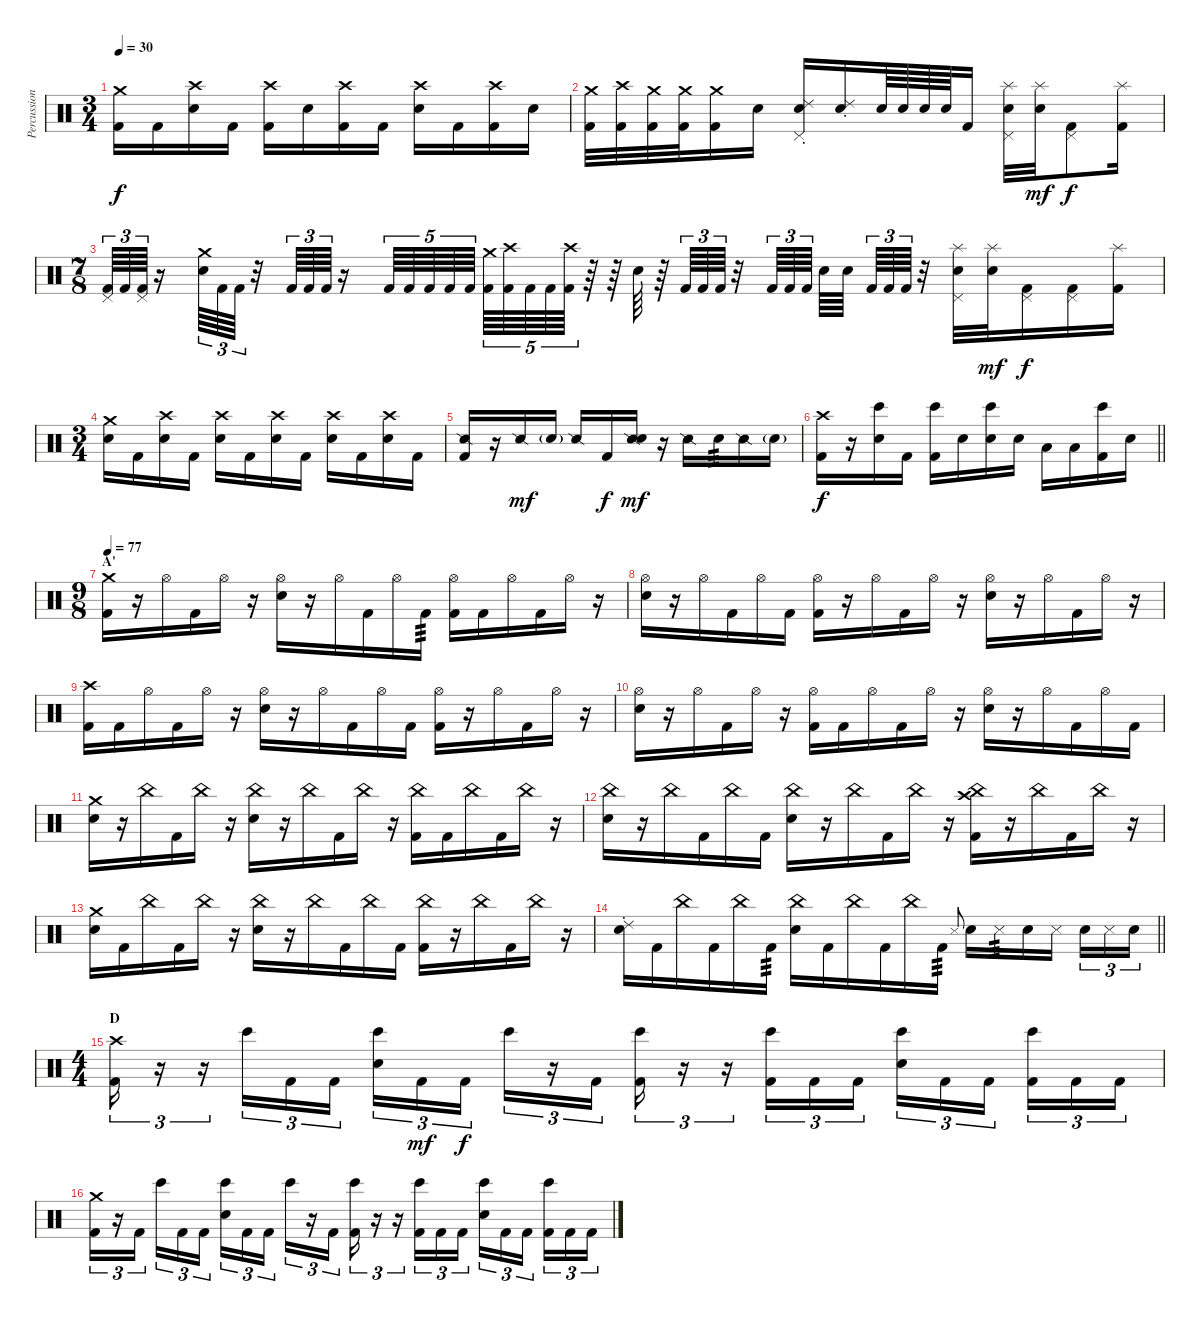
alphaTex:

\track ("Percussion" "Percussion") {instrument percussion}
\staff {score}
\articulation defaults
\ts (3 4)
\tempo 30
\clef neutral
\ks c
("Crash medium (hit)" "Kick (hit) 2").16{dy f} "Kick (hit) 2".16 ("Crash high (hit)" "Snare (hit) 2").16 "Kick (hit) 2".16 ("Crash high (hit)" "Kick (hit) 2").16 "Snare (hit) 2".16 ("Crash high (hit)" "Kick (hit) 2").16 "Kick (hit) 2".16 ("Crash high (hit)" "Snare (hit) 2").16 "Kick (hit) 2".16 ("Crash high (hit)" "Kick (hit) 2").16 "Snare (hit) 2".16 |
("Crash medium (hit)" "Kick (hit) 2").32 ("Crash high (hit)" "Kick (hit) 2").32 ("Crash medium (hit)" "Kick (hit) 2").32 ("Crash medium (hit)" "Kick (hit) 2").32 ("Crash medium (hit)" "Kick (hit) 2").16 "Snare (hit) 2".16 ("Ride (choke) 2" "Pedal Hi-Hat (hit)" "Snare (hit) 2").16 ("Ride (choke) 2" "Snare (hit) 2").16 "Snare (hit) 2".64 "Snare (hit) 2".64 "Snare (hit) 2".64 "Snare (hit) 2".64 "Kick (hit) 2".16 ("Splash (hit)" "Pedal Hi-Hat (hit)" "Snare (hit) 2").32 ("Splash (hit)" "Snare (hit) 2").32{dy mf} ("Pedal Hi-Hat (hit)" "Kick (hit) 2").8{dy f} ("Splash (hit)" "Kick (hit) 2").16 |
\ts (7 8)
("Pedal Hi-Hat (hit)" "Kick (hit) 2").64{tu (3 2)} "Kick (hit) 2".64{tu (3 2)} ("Pedal Hi-Hat (hit)" "Kick (hit) 2").64{tu (3 2)} r.16 ("Crash medium (hit)" "Snare (hit) 2").64{tu (3 2)} "Kick (hit) 2".64{tu (3 2)} "Kick (hit) 2".64{tu (3 2)} r.32 "Kick (hit) 2".64{tu (3 2)} "Kick (hit) 2".64{tu (3 2)} "Kick (hit) 2".64{tu (3 2)} r.16 "Kick (hit) 2".64{tu (5 4)} "Kick (hit) 2".64{tu (5 4)} "Kick (hit) 2".64{tu (5 4)} "Kick (hit) 2".64{tu (5 4)} "Kick (hit) 2".64{tu (5 4) beam splitsecondary} ("Crash medium (hit)" "Kick (hit) 2").64{tu (5 4)} ("Crash high (hit)" "Kick (hit) 2").64{tu (5 4)} "Kick (hit) 2".64{tu (5 4)} "Kick (hit) 2".64{tu (5 4)} ("Crash high (hit)" "Kick (hit) 2").64{tu (5 4)} r.64 r.64 "Snare (hit) 2".64 r.64 "Kick (hit) 2".64{tu (3 2)} "Kick (hit) 2".64{tu (3 2)} "Kick (hit) 2".64{tu (3 2)} r.32 "Kick (hit) 2".64{tu (3 2)} "Kick (hit) 2".64{tu (3 2)} "Kick (hit) 2".64{tu (3 2) beam splitsecondary} "Snare (hit) 2".64 "Snare (hit) 2".64{beam splitsecondary} "Kick (hit) 2".64{tu (3 2)} "Kick (hit) 2".64{tu (3 2)} "Kick (hit) 2".64{tu (3 2)} r.32 ("Splash (hit)" "Pedal Hi-Hat (hit)" "Snare (hit) 2").32 ("Splash (hit)" "Snare (hit) 2").32{dy mf} ("Pedal Hi-Hat (hit)" "Kick (hit) 2").16{dy f} ("Pedal Hi-Hat (hit)" "Kick (hit) 2").16 ("Splash (hit)" "Kick (hit) 2").16 |
\ts (3 4)
("Crash medium (hit)" "Snare (hit) 2").16 "Kick (hit) 2".16 ("Crash high (hit)" "Snare (hit) 2").16 "Kick (hit) 2".16 ("Crash high (hit)" "Snare (hit) 2").16 "Kick (hit) 2".16 ("Crash high (hit)" "Snare (hit) 2").16 "Kick (hit) 2".16 ("Crash high (hit)" "Snare (hit) 2").16 "Kick (hit) 2".16 ("Crash high (hit)" "Snare (hit) 2").16 "Kick (hit) 2".16 |
("Snare (side stick) 2" "Kick (hit) 2").16 r.16 "Snare (side stick) 2".16{dy mf} "Snare (hit) 2"{g}.16 "Snare (side stick) 2".16 "Kick (hit) 2".16{dy f} ("Snare (side stick) 2" "Snare (hit) 2").16{dy mf} r.16 "Snare (side stick) 2".16 "Snare (hit) 2".16{tp 3} "Snare (side stick) 2".16 "Snare (hit) 2"{g}.16 |
\barLineRight lightlight
("Crash high (hit)" "Kick (hit) 2").16{dy f} r.16 ("Bongo High (hit)" "Snare (hit) 2").16 "Kick (hit) 2".16 ("Bongo High (hit)" "Kick (hit) 2").16 "Snare (hit) 2".16 ("Bongo High (hit)" "Snare (hit) 2").16 "Snare (hit) 2".16 "Low Tom (hit)".16 "Low Tom (hit)".16 ("Bongo High (hit)" "Kick (hit) 2").16 "Snare (hit) 2".16 |
\ts (9 8)
\section ("" "A'")
\tempo 77
("Crash medium (hit)" "Kick (hit) 2").16 r.16 "Hi-Hat (open)".16 "Kick (hit) 2".16 "Hi-Hat (open)".16 r.16 ("Hi-Hat (open)" "Snare (hit) 2").16 r.16 "Hi-Hat (open)".16 "Kick (hit) 2".16 "Hi-Hat (open)".16 "Kick (hit) 2".16{tp 3} ("Hi-Hat (open)" "Kick (hit) 2").16 "Kick (hit) 2".16 "Hi-Hat (open)".16 "Kick (hit) 2".16 "Hi-Hat (open)".16 r.16 |
("Hi-Hat (open)" "Snare (hit) 2").16 r.16 "Hi-Hat (open)".16 "Kick (hit) 2".16 "Hi-Hat (open)".16 "Kick (hit) 2".16 ("Hi-Hat (open)" "Kick (hit) 2").16 r.16 "Hi-Hat (open)".16 "Kick (hit) 2".16 "Hi-Hat (open)".16 r.16 ("Hi-Hat (open)" "Snare (hit) 2").16 r.16 "Hi-Hat (open)".16 "Kick (hit) 2".16 "Hi-Hat (open)".16 r.16 |
("Crash high (hit)" "Kick (hit) 2").16 "Kick (hit) 2".16 "Hi-Hat (open)".16 "Kick (hit) 2".16 "Hi-Hat (open)".16 r.16 ("Hi-Hat (open)" "Snare (hit) 2").16 r.16 "Hi-Hat (open)".16 "Kick (hit) 2".16 "Hi-Hat (open)".16 "Kick (hit) 2".16 ("Hi-Hat (open)" "Kick (hit) 2").16 r.16 "Hi-Hat (open)".16 "Kick (hit) 2".16 "Hi-Hat (open)".16 r.16 |
("Hi-Hat (open)" "Snare (hit) 2").16 r.16 "Hi-Hat (open)".16 "Kick (hit) 2".16 "Hi-Hat (open)".16 r.16 ("Hi-Hat (open)" "Kick (hit) 2").16 "Kick (hit) 2".16 "Hi-Hat (open)".16 "Kick (hit) 2".16 "Hi-Hat (open)".16 r.16 ("Hi-Hat (open)" "Snare (hit) 2").16 r.16 "Hi-Hat (open)".16 "Kick (hit) 2".16 "Hi-Hat (open)".16 "Kick (hit) 2".16 |
("Crash medium (hit)" "Snare (hit) 2").16 r.16 "China (hit)".16 "Kick (hit) 2".16 "China (hit)".16 r.16 ("China (hit)" "Snare (hit) 2").16 r.16 "China (hit)".16 "Kick (hit) 2".16 "China (hit)".16 r.16 ("China (hit)" "Kick (hit) 2").16 "Kick (hit) 2".16 "China (hit)".16 "Kick (hit) 2".16 "China (hit)".16 r.16 |
("China (hit)" "Snare (hit) 2").16 r.16 "China (hit)".16 "Kick (hit) 2".16 "China (hit)".16 "Kick (hit) 2".16 ("China (hit)" "Snare (hit) 2").16 r.16 "China (hit)".16 "Kick (hit) 2".16 "China (hit)".16 r.16 ("China (hit)" "Crash high (hit)" "Kick (hit) 2").16 r.16 "China (hit)".16 "Kick (hit) 2".16 "China (hit)".16 r.16 |
("Crash medium (hit)" "Snare (hit) 2").16 "Kick (hit) 2".16 "China (hit)".16 "Kick (hit) 2".16 "China (hit)".16 r.16 ("China (hit)" "Snare (hit) 2").16 r.16 "China (hit)".16 "Kick (hit) 2".16 "China (hit)".16 "Kick (hit) 2".16 ("China (hit)" "Kick (hit) 2").16 r.16 "China (hit)".16 "Kick (hit) 2".16 "China (hit)".16 r.16 |
\barLineRight lightlight
("Ride (choke) 2" "Snare (hit) 2").16 "Kick (hit) 2".16 "China (hit)".16 "Kick (hit) 2".16 "China (hit)".16 "Kick (hit) 2".16{tp 3} ("China (hit)" "Snare (hit) 2").16 "Kick (hit) 2".16 "China (hit)".16 "Kick (hit) 2".16 "China (hit)".16 "Kick (hit) 2".16{tp 3} "Metronome (hit)".8{gr onbeat} "Snare (hit) 2".16 "Metronome (hit)".16{tp 3} "Snare (hit) 2".16 "Metronome (hit)".16{beam splitsecondary} "Snare (hit) 2".16{tu (3 2)} "Metronome (hit)".16{tu (3 2)} "Snare (hit) 2".16{tu (3 2)} |
\ts (4 4)
\section ("" "D")
("Crash high (hit)" "Kick (hit) 2").16{tu (3 2)} r.16{tu (3 2)} r.16{tu (3 2)} "Bongo High (hit)".16{tu (3 2)} "Kick (hit) 2".16{tu (3 2)} "Kick (hit) 2".16{tu (3 2)} ("Bongo High (hit)" "Snare (hit) 2").16{tu (3 2)} "Kick (hit) 2".16{tu (3 2) dy mf} "Kick (hit) 2".16{tu (3 2) dy f beam splitsecondary} "Bongo High (hit)".16{tu (3 2)} r.16{tu (3 2)} "Kick (hit) 2".16{tu (3 2)} ("Bongo High (hit)" "Kick (hit) 2").16{tu (3 2)} r.16{tu (3 2)} r.16{tu (3 2)} ("Bongo High (hit)" "Kick (hit) 2").16{tu (3 2)} "Kick (hit) 2".16{tu (3 2)} "Kick (hit) 2".16{tu (3 2)} ("Bongo High (hit)" "Snare (hit) 2").16{tu (3 2)} "Kick (hit) 2".16{tu (3 2)} "Kick (hit) 2".16{tu (3 2) beam splitsecondary} ("Bongo High (hit)" "Kick (hit) 2").16{tu (3 2)} "Kick (hit) 2".16{tu (3 2)} "Kick (hit) 2".16{tu (3 2)} |
("Crash medium (hit)" "Kick (hit) 2").16{tu (3 2)} r.16{tu (3 2)} "Kick (hit) 2".16{tu (3 2) beam splitsecondary} "Bongo High (hit)".16{tu (3 2)} "Kick (hit) 2".16{tu (3 2)} "Kick (hit) 2".16{tu (3 2)} ("Bongo High (hit)" "Snare (hit) 2").16{tu (3 2)} "Kick (hit) 2".16{tu (3 2)} "Kick (hit) 2".16{tu (3 2) beam splitsecondary} "Bongo High (hit)".16{tu (3 2)} r.16{tu (3 2)} "Kick (hit) 2".16{tu (3 2)} ("Bongo High (hit)" "Kick (hit) 2").16{tu (3 2)} r.16{tu (3 2)} r.16{tu (3 2)} ("Bongo High (hit)" "Kick (hit) 2").16{tu (3 2)} "Kick (hit) 2".16{tu (3 2)} "Kick (hit) 2".16{tu (3 2)} ("Bongo High (hit)" "Snare (hit) 2").16{tu (3 2)} "Kick (hit) 2".16{tu (3 2)} "Kick (hit) 2".16{tu (3 2) beam splitsecondary} ("Bongo High (hit)" "Kick (hit) 2").16{tu (3 2)} "Kick (hit) 2".16{tu (3 2)} "Kick (hit) 2".16{tu (3 2)}
